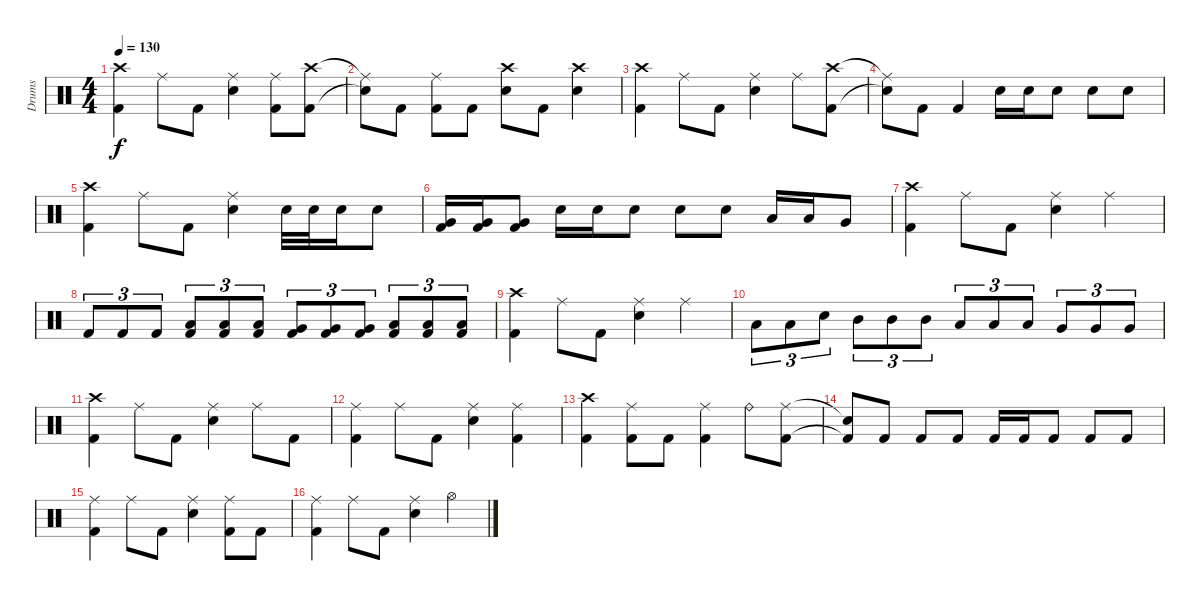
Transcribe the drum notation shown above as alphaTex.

\track ("Drums" "Drums") {instrument percussion}
\staff {score}
\articulation defaults
\ts (4 4)
\tempo 130
\clef neutral
\ks c
("Crash high (hit)" "Kick (hit) 2").4{dy f} "Ride (middle)".8 "Kick (hit) 2".8 ("Ride (middle)" "Electric Snare (hit)").4 ("Ride (middle)" "Kick (hit) 2").8 ("Crash high (hit)" "Kick (hit) 2").8 |
("Ride (middle)"{t} "Snare (hit)"{t}).8 "Kick (hit) 2".8 ("Ride (middle)" "Kick (hit) 2").8 "Kick (hit) 2".8 ("Crash high (hit)" "Electric Snare (hit)").8 "Kick (hit) 2".8 ("Crash high (hit)" "Electric Snare (hit)").4 |
("Crash high (hit)" "Kick (hit) 2").4 "Ride (middle)".8 "Kick (hit) 2".8 ("Ride (middle)" "Electric Snare (hit)").4 "Ride (middle)".8 ("Crash high (hit)" "Kick (hit) 2").8 |
("Ride (middle)"{t} "Snare (hit)"{t}).8 "Kick (hit) 2".8 "Kick (hit) 2".4 "Electric Snare (hit)".16 "Electric Snare (hit)".16 "Electric Snare (hit)".8 "Electric Snare (hit)".8 "Electric Snare (hit)".8 |
("Crash high (hit)" "Kick (hit) 2").4 "Ride (middle)".8 "Kick (hit) 2".8 ("Ride (middle)" "Electric Snare (hit)").4 "Electric Snare (hit)".32 "Electric Snare (hit)".32 "Electric Snare (hit)".16 "Electric Snare (hit)".8 |
("Very Low Tom (hit)" "Kick (hit) 2").16 ("Very Low Tom (hit)" "Kick (hit) 2").16 ("Very Low Tom (hit)" "Kick (hit) 2").8 "Electric Snare (hit)".16 "Electric Snare (hit)".16 "Electric Snare (hit)".8 "Electric Snare (hit)".8 "Electric Snare (hit)".8 "Low Tom (hit)".16 "Low Tom (hit)".16 "Very Low Tom (hit)".8 |
("Crash high (hit)" "Kick (hit) 2").4 "Ride (middle)".8 "Kick (hit) 2".8 ("Ride (middle)" "Electric Snare (hit)").4 "Ride (middle)".4 |
"Kick (hit) 2".8{tu (3 2)} "Kick (hit) 2".8{tu (3 2)} "Kick (hit) 2".8{tu (3 2)} ("Low Tom (hit)" "Kick (hit) 2").8{tu (3 2)} ("Low Tom (hit)" "Kick (hit) 2").8{tu (3 2)} ("Low Tom (hit)" "Kick (hit) 2").8{tu (3 2)} ("Very Low Tom (hit)" "Kick (hit) 2").8{tu (3 2)} ("Very Low Tom (hit)" "Kick (hit) 2").8{tu (3 2)} ("Very Low Tom (hit)" "Kick (hit) 2").8{tu (3 2)} ("Low Floor Tom (hit)" "Kick (hit) 2").8{tu (3 2)} ("Low Floor Tom (hit)" "Kick (hit) 2").8{tu (3 2)} ("Low Floor Tom (hit)" "Kick (hit) 2").8{tu (3 2)} |
("Crash high (hit)" "Kick (hit) 2").4 "Ride (middle)".8 "Kick (hit) 2".8 ("Ride (middle)" "Electric Snare (hit)").4 "Ride (middle)".4 |
"Low Tom (hit)".8{tu (3 2)} "Low Tom (hit)".8{tu (3 2)} "Electric Snare (hit)".8{tu (3 2)} "Mid Tom (hit)".8{tu (3 2)} "Mid Tom (hit)".8{tu (3 2)} "Mid Tom (hit)".8{tu (3 2)} "Low Tom (hit)".8{tu (3 2)} "Low Tom (hit)".8{tu (3 2)} "Low Tom (hit)".8{tu (3 2)} "Very Low Tom (hit)".8{tu (3 2)} "Very Low Tom (hit)".8{tu (3 2)} "Very Low Tom (hit)".8{tu (3 2)} |
("Crash high (hit)" "Kick (hit) 2").4 "Ride (middle)".8 "Kick (hit) 2".8 ("Ride (middle)" "Electric Snare (hit)").4 "Ride (middle)".8 "Kick (hit) 2".8 |
("Ride (middle)" "Kick (hit) 2").4 "Ride (middle)".8 "Kick (hit) 2".8 ("Ride (middle)" "Electric Snare (hit)").4 ("Ride (middle)" "Kick (hit) 2").4 |
("Crash high (hit)" "Kick (hit) 2").4 ("Ride (middle)" "Kick (hit) 2").8 "Kick (hit) 2".8 ("Ride (middle)" "Kick (hit) 2").4 "Ride (bell)".8 ("Ride (middle)" "Kick (hit) 2").8 |
("Snare (hit)"{t} "Kick (hit) 2"{t}).8 "Kick (hit) 2".8 "Kick (hit) 2".8 "Kick (hit) 2".8 "Kick (hit) 2".16 "Kick (hit) 2".16 "Kick (hit) 2".8 "Kick (hit) 2".8 "Kick (hit) 2".8 |
("Ride (middle)" "Kick (hit) 2").4 "Ride (middle)".8 "Kick (hit) 2".8 ("Ride (middle)" "Electric Snare (hit)").4 ("Ride (middle)" "Kick (hit) 2").8 "Kick (hit) 2".8 |
("Ride (middle)" "Kick (hit) 2").4 "Ride (middle)".8 "Kick (hit) 2".8 ("Ride (middle)" "Electric Snare (hit)").4 "Hi-Hat (open)".4
